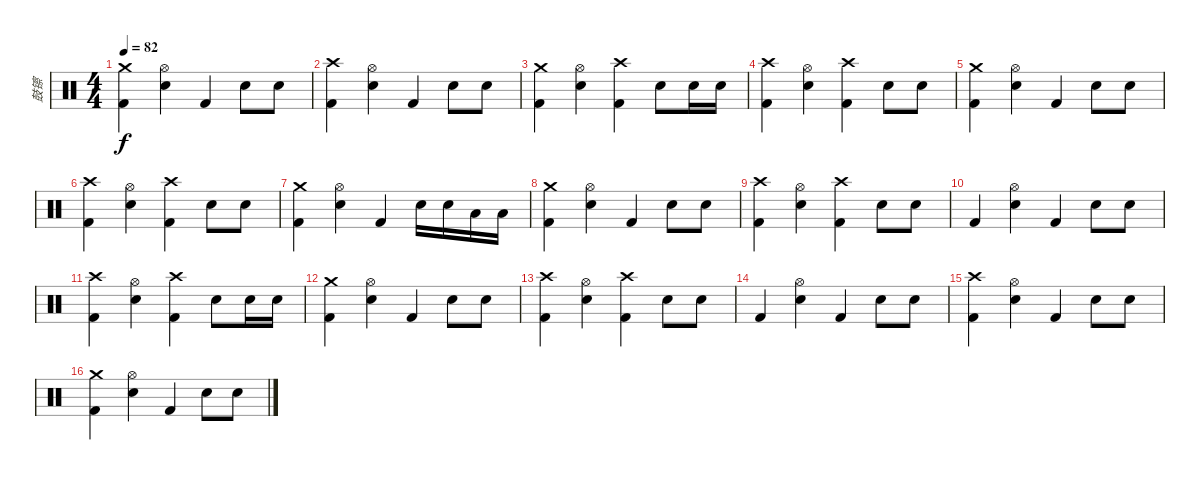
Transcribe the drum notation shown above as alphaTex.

\track ("鼓镲" "鼓镲") {instrument percussion}
\staff {score}
\articulation defaults
\ts (4 4)
\tempo 82
\clef neutral
\ks c
("Crash medium (hit)" "Kick (hit) 2").4{dy f} ("Hi-Hat (open)" "Electric Snare (hit)").4 "Kick (hit) 2".4 "Electric Snare (hit)".8 "Electric Snare (hit)".8 |
("Crash high (hit)" "Kick (hit) 2").4 ("Hi-Hat (open)" "Electric Snare (hit)").4 "Kick (hit) 2".4 "Electric Snare (hit)".8 "Electric Snare (hit)".8 |
("Crash medium (hit)" "Kick (hit) 2").4 ("Hi-Hat (open)" "Electric Snare (hit)").4 ("Crash high (hit)" "Kick (hit) 2").4 "Electric Snare (hit)".8 "Electric Snare (hit)".16 "Electric Snare (hit)".16 |
("Crash high (hit)" "Kick (hit) 2").4 ("Hi-Hat (open)" "Electric Snare (hit)").4 ("Crash high (hit)" "Kick (hit) 2").4 "Electric Snare (hit)".8 "Electric Snare (hit)".8 |
("Crash medium (hit)" "Kick (hit) 2").4 ("Hi-Hat (open)" "Electric Snare (hit)").4 "Kick (hit) 2".4 "Electric Snare (hit)".8 "Electric Snare (hit)".8 |
("Crash high (hit)" "Kick (hit) 2").4 ("Hi-Hat (open)" "Electric Snare (hit)").4 ("Crash high (hit)" "Kick (hit) 2").4 "Electric Snare (hit)".8 "Electric Snare (hit)".8 |
("Crash medium (hit)" "Kick (hit) 2").4 ("Hi-Hat (open)" "Electric Snare (hit)").4 "Kick (hit) 2".4 "Electric Snare (hit)".16 "Electric Snare (hit)".16 "Low Tom (hit)".16 "Low Tom (hit)".16 |
("Crash medium (hit)" "Kick (hit) 2").4 ("Hi-Hat (open)" "Electric Snare (hit)").4 "Kick (hit) 2".4 "Electric Snare (hit)".8 "Electric Snare (hit)".8 |
("Crash high (hit)" "Kick (hit) 2").4 ("Hi-Hat (open)" "Electric Snare (hit)").4 ("Crash high (hit)" "Kick (hit) 2").4 "Electric Snare (hit)".8 "Electric Snare (hit)".8 |
"Kick (hit) 2".4 ("Hi-Hat (open)" "Electric Snare (hit)").4 "Kick (hit) 2".4 "Electric Snare (hit)".8 "Electric Snare (hit)".8 |
("Crash high (hit)" "Kick (hit) 2").4 ("Hi-Hat (open)" "Electric Snare (hit)").4 ("Crash high (hit)" "Kick (hit) 2").4 "Electric Snare (hit)".8 "Electric Snare (hit)".16 "Electric Snare (hit)".16 |
("Crash medium (hit)" "Kick (hit) 2").4 ("Hi-Hat (open)" "Electric Snare (hit)").4 "Kick (hit) 2".4 "Electric Snare (hit)".8 "Electric Snare (hit)".8 |
("Crash high (hit)" "Kick (hit) 2").4 ("Hi-Hat (open)" "Electric Snare (hit)").4 ("Crash high (hit)" "Kick (hit) 2").4 "Electric Snare (hit)".8 "Electric Snare (hit)".8 |
"Kick (hit) 2".4 ("Hi-Hat (open)" "Electric Snare (hit)").4 "Kick (hit) 2".4 "Electric Snare (hit)".8 "Electric Snare (hit)".8 |
("Crash high (hit)" "Kick (hit) 2").4 ("Hi-Hat (open)" "Electric Snare (hit)").4 "Kick (hit) 2".4 "Electric Snare (hit)".8 "Electric Snare (hit)".8 |
("Crash medium (hit)" "Kick (hit) 2").4 ("Hi-Hat (open)" "Electric Snare (hit)").4 "Kick (hit) 2".4 "Electric Snare (hit)".8 "Electric Snare (hit)".8
